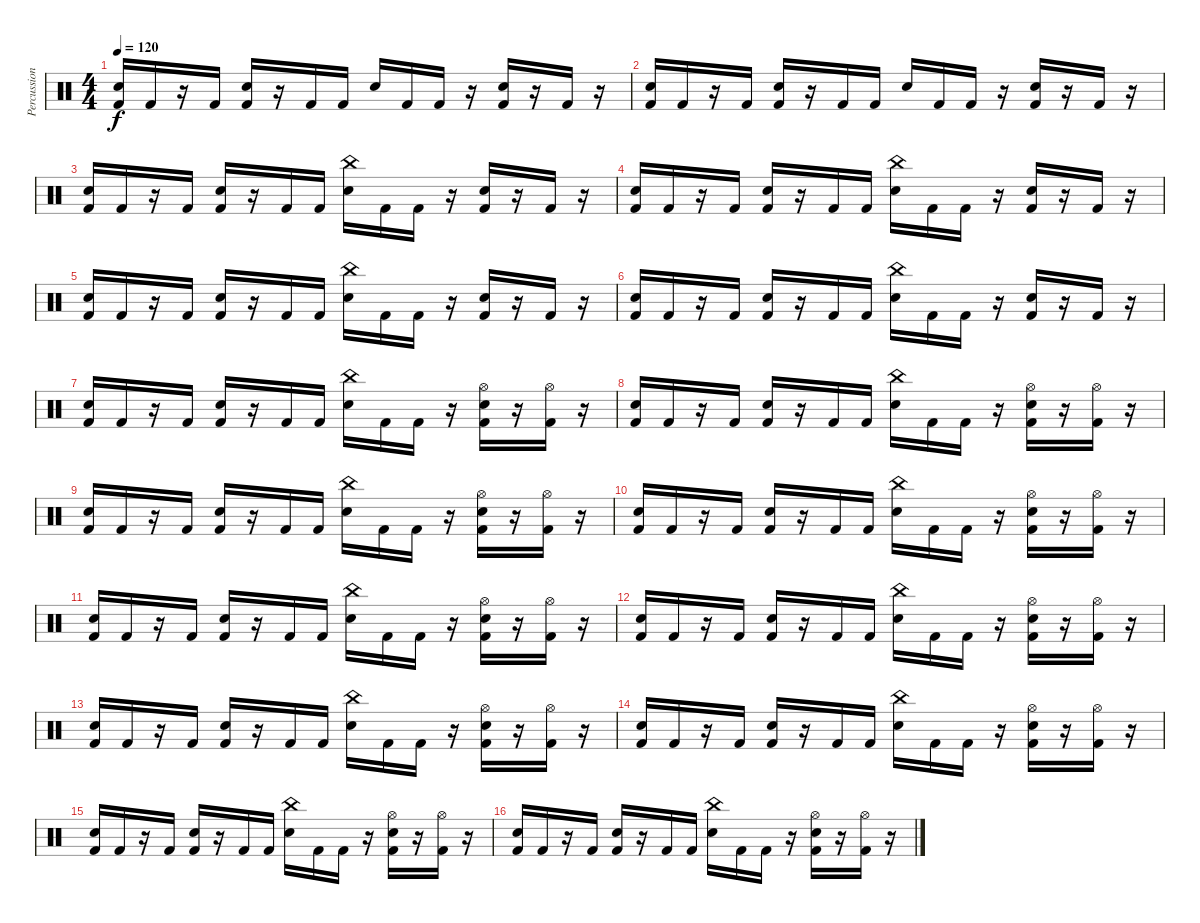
\track ("Percussion" "Percussion") {instrument percussion}
\staff {score}
\articulation defaults
\ts (4 4)
\tempo 120
\clef neutral
\ks c
("Kick (hit) 2" "Electric Snare (hit)").16{dy f} "Kick (hit) 2".16 r.16 "Kick (hit) 2".16 ("Kick (hit) 2" "Electric Snare (hit)").16 r.16 "Kick (hit) 2".16 "Kick (hit) 2".16 "Electric Snare (hit)".16 "Kick (hit) 2".16 "Kick (hit) 2".16 r.16 ("Kick (hit) 2" "Electric Snare (hit)").16 r.16 "Kick (hit) 2".16 r.16 |
("Kick (hit) 2" "Electric Snare (hit)").16 "Kick (hit) 2".16 r.16 "Kick (hit) 2".16 ("Kick (hit) 2" "Electric Snare (hit)").16 r.16 "Kick (hit) 2".16 "Kick (hit) 2".16 "Electric Snare (hit)".16 "Kick (hit) 2".16 "Kick (hit) 2".16 r.16 ("Kick (hit) 2" "Electric Snare (hit)").16 r.16 "Kick (hit) 2".16 r.16 |
("Kick (hit) 2" "Electric Snare (hit)").16 "Kick (hit) 2".16 r.16 "Kick (hit) 2".16 ("Kick (hit) 2" "Electric Snare (hit)").16 r.16 "Kick (hit) 2".16 "Kick (hit) 2".16 ("Electric Snare (hit)" "China (hit)").16 "Kick (hit) 2".16 "Kick (hit) 2".16 r.16 ("Kick (hit) 2" "Electric Snare (hit)").16 r.16 "Kick (hit) 2".16 r.16 |
("Kick (hit) 2" "Electric Snare (hit)").16 "Kick (hit) 2".16 r.16 "Kick (hit) 2".16 ("Kick (hit) 2" "Electric Snare (hit)").16 r.16 "Kick (hit) 2".16 "Kick (hit) 2".16 ("Electric Snare (hit)" "China (hit)").16 "Kick (hit) 2".16 "Kick (hit) 2".16 r.16 ("Kick (hit) 2" "Electric Snare (hit)").16 r.16 "Kick (hit) 2".16 r.16 |
("Kick (hit) 2" "Electric Snare (hit)").16 "Kick (hit) 2".16 r.16 "Kick (hit) 2".16 ("Kick (hit) 2" "Electric Snare (hit)").16 r.16 "Kick (hit) 2".16 "Kick (hit) 2".16 ("Electric Snare (hit)" "China (hit)").16 "Kick (hit) 2".16 "Kick (hit) 2".16 r.16 ("Kick (hit) 2" "Electric Snare (hit)").16 r.16 "Kick (hit) 2".16 r.16 |
("Kick (hit) 2" "Electric Snare (hit)").16 "Kick (hit) 2".16 r.16 "Kick (hit) 2".16 ("Kick (hit) 2" "Electric Snare (hit)").16 r.16 "Kick (hit) 2".16 "Kick (hit) 2".16 ("Electric Snare (hit)" "China (hit)").16 "Kick (hit) 2".16 "Kick (hit) 2".16 r.16 ("Kick (hit) 2" "Electric Snare (hit)").16 r.16 "Kick (hit) 2".16 r.16 |
("Kick (hit) 2" "Electric Snare (hit)").16 "Kick (hit) 2".16 r.16 "Kick (hit) 2".16 ("Kick (hit) 2" "Electric Snare (hit)").16 r.16 "Kick (hit) 2".16 "Kick (hit) 2".16 ("Electric Snare (hit)" "China (hit)").16 "Kick (hit) 2".16 "Kick (hit) 2".16 r.16 ("Kick (hit) 2" "Electric Snare (hit)" "Hi-Hat (open)").16 r.16 ("Kick (hit) 2" "Hi-Hat (open)").16 r.16 |
("Kick (hit) 2" "Electric Snare (hit)").16 "Kick (hit) 2".16 r.16 "Kick (hit) 2".16 ("Kick (hit) 2" "Electric Snare (hit)").16 r.16 "Kick (hit) 2".16 "Kick (hit) 2".16 ("Electric Snare (hit)" "China (hit)").16 "Kick (hit) 2".16 "Kick (hit) 2".16 r.16 ("Kick (hit) 2" "Electric Snare (hit)" "Hi-Hat (open)").16 r.16 ("Kick (hit) 2" "Hi-Hat (open)").16 r.16 |
("Kick (hit) 2" "Electric Snare (hit)").16 "Kick (hit) 2".16 r.16 "Kick (hit) 2".16 ("Kick (hit) 2" "Electric Snare (hit)").16 r.16 "Kick (hit) 2".16 "Kick (hit) 2".16 ("Electric Snare (hit)" "China (hit)").16 "Kick (hit) 2".16 "Kick (hit) 2".16 r.16 ("Kick (hit) 2" "Electric Snare (hit)" "Hi-Hat (open)").16 r.16 ("Kick (hit) 2" "Hi-Hat (open)").16 r.16 |
("Kick (hit) 2" "Electric Snare (hit)").16 "Kick (hit) 2".16 r.16 "Kick (hit) 2".16 ("Kick (hit) 2" "Electric Snare (hit)").16 r.16 "Kick (hit) 2".16 "Kick (hit) 2".16 ("Electric Snare (hit)" "China (hit)").16 "Kick (hit) 2".16 "Kick (hit) 2".16 r.16 ("Kick (hit) 2" "Electric Snare (hit)" "Hi-Hat (open)").16 r.16 ("Kick (hit) 2" "Hi-Hat (open)").16 r.16 |
("Kick (hit) 2" "Electric Snare (hit)").16 "Kick (hit) 2".16 r.16 "Kick (hit) 2".16 ("Kick (hit) 2" "Electric Snare (hit)").16 r.16 "Kick (hit) 2".16 "Kick (hit) 2".16 ("Electric Snare (hit)" "China (hit)").16 "Kick (hit) 2".16 "Kick (hit) 2".16 r.16 ("Kick (hit) 2" "Electric Snare (hit)" "Hi-Hat (open)").16 r.16 ("Kick (hit) 2" "Hi-Hat (open)").16 r.16 |
("Kick (hit) 2" "Electric Snare (hit)").16 "Kick (hit) 2".16 r.16 "Kick (hit) 2".16 ("Kick (hit) 2" "Electric Snare (hit)").16 r.16 "Kick (hit) 2".16 "Kick (hit) 2".16 ("Electric Snare (hit)" "China (hit)").16 "Kick (hit) 2".16 "Kick (hit) 2".16 r.16 ("Kick (hit) 2" "Electric Snare (hit)" "Hi-Hat (open)").16 r.16 ("Kick (hit) 2" "Hi-Hat (open)").16 r.16 |
("Kick (hit) 2" "Electric Snare (hit)").16 "Kick (hit) 2".16 r.16 "Kick (hit) 2".16 ("Kick (hit) 2" "Electric Snare (hit)").16 r.16 "Kick (hit) 2".16 "Kick (hit) 2".16 ("Electric Snare (hit)" "China (hit)").16 "Kick (hit) 2".16 "Kick (hit) 2".16 r.16 ("Kick (hit) 2" "Electric Snare (hit)" "Hi-Hat (open)").16 r.16 ("Kick (hit) 2" "Hi-Hat (open)").16 r.16 |
("Kick (hit) 2" "Electric Snare (hit)").16 "Kick (hit) 2".16 r.16 "Kick (hit) 2".16 ("Kick (hit) 2" "Electric Snare (hit)").16 r.16 "Kick (hit) 2".16 "Kick (hit) 2".16 ("Electric Snare (hit)" "China (hit)").16 "Kick (hit) 2".16 "Kick (hit) 2".16 r.16 ("Kick (hit) 2" "Electric Snare (hit)" "Hi-Hat (open)").16 r.16 ("Kick (hit) 2" "Hi-Hat (open)").16 r.16 |
("Kick (hit) 2" "Electric Snare (hit)").16 "Kick (hit) 2".16 r.16 "Kick (hit) 2".16 ("Kick (hit) 2" "Electric Snare (hit)").16 r.16 "Kick (hit) 2".16 "Kick (hit) 2".16 ("Electric Snare (hit)" "China (hit)").16 "Kick (hit) 2".16 "Kick (hit) 2".16 r.16 ("Kick (hit) 2" "Electric Snare (hit)" "Hi-Hat (open)").16 r.16 ("Kick (hit) 2" "Hi-Hat (open)").16 r.16 |
("Kick (hit) 2" "Electric Snare (hit)").16 "Kick (hit) 2".16 r.16 "Kick (hit) 2".16 ("Kick (hit) 2" "Electric Snare (hit)").16 r.16 "Kick (hit) 2".16 "Kick (hit) 2".16 ("Electric Snare (hit)" "China (hit)").16 "Kick (hit) 2".16 "Kick (hit) 2".16 r.16 ("Kick (hit) 2" "Electric Snare (hit)" "Hi-Hat (open)").16 r.16 ("Kick (hit) 2" "Hi-Hat (open)").16 r.16
